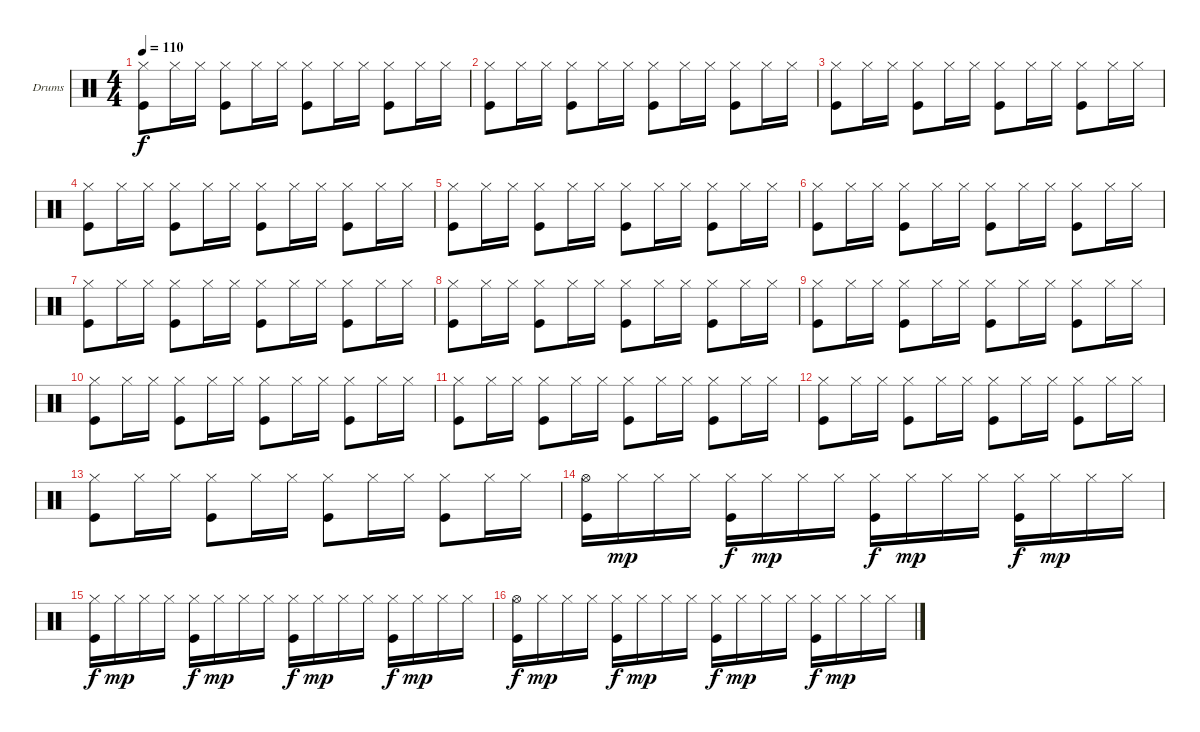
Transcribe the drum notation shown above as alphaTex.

\defaultSystemsLayout 4
\bracketExtendMode nobrackets
\firstSystemTrackNameOrientation horizontal
\otherSystemsTrackNameOrientation horizontal
\track ("Ударные" "Drums") {instrument percussion}
\staff {score}
\articulation defaults
\ts (4 4)
\tempo 110
\clef neutral
\ks c
("Kick (hit)" "Hi-Hat (closed)").8{dy f} "Hi-Hat (closed)".16 "Hi-Hat (closed)".16 ("Kick (hit)" "Hi-Hat (closed)").8 "Hi-Hat (closed)".16 "Hi-Hat (closed)".16 ("Hi-Hat (closed)" "Kick (hit)").8 "Hi-Hat (closed)".16 "Hi-Hat (closed)".16 ("Kick (hit)" "Hi-Hat (closed)").8 "Hi-Hat (closed)".16 "Hi-Hat (closed)".16 |
("Kick (hit)" "Hi-Hat (closed)").8 "Hi-Hat (closed)".16 "Hi-Hat (closed)".16 ("Kick (hit)" "Hi-Hat (closed)").8 "Hi-Hat (closed)".16 "Hi-Hat (closed)".16 ("Hi-Hat (closed)" "Kick (hit)").8 "Hi-Hat (closed)".16 "Hi-Hat (closed)".16 ("Kick (hit)" "Hi-Hat (closed)").8 "Hi-Hat (closed)".16 "Hi-Hat (closed)".16 |
("Kick (hit)" "Hi-Hat (closed)").8 "Hi-Hat (closed)".16 "Hi-Hat (closed)".16 ("Kick (hit)" "Hi-Hat (closed)").8 "Hi-Hat (closed)".16 "Hi-Hat (closed)".16 ("Hi-Hat (closed)" "Kick (hit)").8 "Hi-Hat (closed)".16 "Hi-Hat (closed)".16 ("Kick (hit)" "Hi-Hat (closed)").8 "Hi-Hat (closed)".16 "Hi-Hat (closed)".16 |
("Kick (hit)" "Hi-Hat (closed)").8 "Hi-Hat (closed)".16 "Hi-Hat (closed)".16 ("Kick (hit)" "Hi-Hat (closed)").8 "Hi-Hat (closed)".16 "Hi-Hat (closed)".16 ("Hi-Hat (closed)" "Kick (hit)").8 "Hi-Hat (closed)".16 "Hi-Hat (closed)".16 ("Kick (hit)" "Hi-Hat (closed)").8 "Hi-Hat (closed)".16 "Hi-Hat (closed)".16 |
("Kick (hit)" "Hi-Hat (closed)").8 "Hi-Hat (closed)".16 "Hi-Hat (closed)".16 ("Kick (hit)" "Hi-Hat (closed)").8 "Hi-Hat (closed)".16 "Hi-Hat (closed)".16 ("Hi-Hat (closed)" "Kick (hit)").8 "Hi-Hat (closed)".16 "Hi-Hat (closed)".16 ("Kick (hit)" "Hi-Hat (closed)").8 "Hi-Hat (closed)".16 "Hi-Hat (closed)".16 |
("Kick (hit)" "Hi-Hat (closed)").8 "Hi-Hat (closed)".16 "Hi-Hat (closed)".16 ("Kick (hit)" "Hi-Hat (closed)").8 "Hi-Hat (closed)".16 "Hi-Hat (closed)".16 ("Hi-Hat (closed)" "Kick (hit)").8 "Hi-Hat (closed)".16 "Hi-Hat (closed)".16 ("Kick (hit)" "Hi-Hat (closed)").8 "Hi-Hat (closed)".16 "Hi-Hat (closed)".16 |
("Kick (hit)" "Hi-Hat (closed)").8 "Hi-Hat (closed)".16 "Hi-Hat (closed)".16 ("Kick (hit)" "Hi-Hat (closed)").8 "Hi-Hat (closed)".16 "Hi-Hat (closed)".16 ("Hi-Hat (closed)" "Kick (hit)").8 "Hi-Hat (closed)".16 "Hi-Hat (closed)".16 ("Kick (hit)" "Hi-Hat (closed)").8 "Hi-Hat (closed)".16 "Hi-Hat (closed)".16 |
("Kick (hit)" "Hi-Hat (closed)").8 "Hi-Hat (closed)".16 "Hi-Hat (closed)".16 ("Kick (hit)" "Hi-Hat (closed)").8 "Hi-Hat (closed)".16 "Hi-Hat (closed)".16 ("Hi-Hat (closed)" "Kick (hit)").8 "Hi-Hat (closed)".16 "Hi-Hat (closed)".16 ("Kick (hit)" "Hi-Hat (closed)").8 "Hi-Hat (closed)".16 "Hi-Hat (closed)".16 |
("Kick (hit)" "Hi-Hat (closed)").8 "Hi-Hat (closed)".16 "Hi-Hat (closed)".16 ("Kick (hit)" "Hi-Hat (closed)").8 "Hi-Hat (closed)".16 "Hi-Hat (closed)".16 ("Hi-Hat (closed)" "Kick (hit)").8 "Hi-Hat (closed)".16 "Hi-Hat (closed)".16 ("Kick (hit)" "Hi-Hat (closed)").8 "Hi-Hat (closed)".16 "Hi-Hat (closed)".16 |
("Kick (hit)" "Hi-Hat (closed)").8 "Hi-Hat (closed)".16 "Hi-Hat (closed)".16 ("Kick (hit)" "Hi-Hat (closed)").8 "Hi-Hat (closed)".16 "Hi-Hat (closed)".16 ("Hi-Hat (closed)" "Kick (hit)").8 "Hi-Hat (closed)".16 "Hi-Hat (closed)".16 ("Kick (hit)" "Hi-Hat (closed)").8 "Hi-Hat (closed)".16 "Hi-Hat (closed)".16 |
("Kick (hit)" "Hi-Hat (closed)").8 "Hi-Hat (closed)".16 "Hi-Hat (closed)".16 ("Kick (hit)" "Hi-Hat (closed)").8 "Hi-Hat (closed)".16 "Hi-Hat (closed)".16 ("Hi-Hat (closed)" "Kick (hit)").8 "Hi-Hat (closed)".16 "Hi-Hat (closed)".16 ("Kick (hit)" "Hi-Hat (closed)").8 "Hi-Hat (closed)".16 "Hi-Hat (closed)".16 |
("Kick (hit)" "Hi-Hat (closed)").8 "Hi-Hat (closed)".16 "Hi-Hat (closed)".16 ("Kick (hit)" "Hi-Hat (closed)").8 "Hi-Hat (closed)".16 "Hi-Hat (closed)".16 ("Hi-Hat (closed)" "Kick (hit)").8 "Hi-Hat (closed)".16 "Hi-Hat (closed)".16 ("Kick (hit)" "Hi-Hat (closed)").8 "Hi-Hat (closed)".16 "Hi-Hat (closed)".16 |
("Kick (hit)" "Hi-Hat (closed)").8 "Hi-Hat (closed)".16 "Hi-Hat (closed)".16 ("Kick (hit)" "Hi-Hat (closed)").8 "Hi-Hat (closed)".16 "Hi-Hat (closed)".16 ("Hi-Hat (closed)" "Kick (hit)").8 "Hi-Hat (closed)".16 "Hi-Hat (closed)".16 ("Kick (hit)" "Hi-Hat (closed)").8 "Hi-Hat (closed)".16 "Hi-Hat (closed)".16 |
("Kick (hit)" "Hi-Hat (open)").16 "Hi-Hat (closed)".16{dy mp} "Hi-Hat (closed)".16 "Hi-Hat (closed)".16 ("Hi-Hat (closed)" "Kick (hit)").16{dy f} "Hi-Hat (closed)".16{dy mp} "Hi-Hat (closed)".16 "Hi-Hat (closed)".16 ("Hi-Hat (closed)" "Kick (hit)").16{dy f} "Hi-Hat (closed)".16{dy mp} "Hi-Hat (closed)".16 "Hi-Hat (closed)".16 ("Hi-Hat (closed)" "Kick (hit)").16{dy f} "Hi-Hat (closed)".16{dy mp} "Hi-Hat (closed)".16 "Hi-Hat (closed)".16 |
("Kick (hit)" "Hi-Hat (closed)").16{dy f} "Hi-Hat (closed)".16{dy mp} "Hi-Hat (closed)".16 "Hi-Hat (closed)".16 ("Hi-Hat (closed)" "Kick (hit)").16{dy f} "Hi-Hat (closed)".16{dy mp} "Hi-Hat (closed)".16 "Hi-Hat (closed)".16 ("Hi-Hat (closed)" "Kick (hit)").16{dy f} "Hi-Hat (closed)".16{dy mp} "Hi-Hat (closed)".16 "Hi-Hat (closed)".16 ("Hi-Hat (closed)" "Kick (hit)").16{dy f} "Hi-Hat (closed)".16{dy mp} "Hi-Hat (closed)".16 "Hi-Hat (closed)".16 |
("Kick (hit)" "Hi-Hat (open)").16{dy f} "Hi-Hat (closed)".16{dy mp} "Hi-Hat (closed)".16 "Hi-Hat (closed)".16 ("Hi-Hat (closed)" "Kick (hit)").16{dy f} "Hi-Hat (closed)".16{dy mp} "Hi-Hat (closed)".16 "Hi-Hat (closed)".16 ("Hi-Hat (closed)" "Kick (hit)").16{dy f} "Hi-Hat (closed)".16{dy mp} "Hi-Hat (closed)".16 "Hi-Hat (closed)".16 ("Hi-Hat (closed)" "Kick (hit)").16{dy f} "Hi-Hat (closed)".16{dy mp} "Hi-Hat (closed)".16 "Hi-Hat (closed)".16
